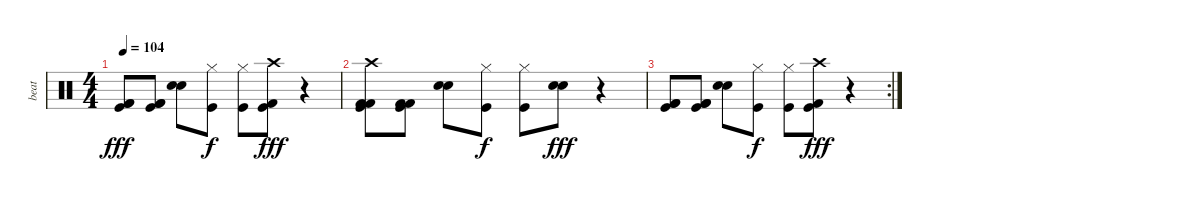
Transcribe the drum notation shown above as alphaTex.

\track ("beat" "beat") {instrument percussion}
\staff {score}
\articulation defaults
\ts (4 4)
\tempo 104
\clef neutral
\ks c
("Kick (hit)" "Kick (hit) 2" "Kick (hit) 2").8{dy fff} ("Kick (hit)" "Kick (hit) 2" "Kick (hit) 2").8 ("Snare (hit) 2" "Electric Snare (hit)").8 ("Kick (hit)" "Hi-Hat (closed)").8{dy f} ("Kick (hit)" "Hi-Hat (closed)").8 ("Kick (hit)" "Kick (hit) 2" "Crash high (hit)").8{dy fff} r.4 |
("Kick (hit)" "Kick (hit) 2" "Kick (hit) 2" "Crash high (hit)").8 ("Kick (hit)" "Kick (hit) 2" "Kick (hit) 2").8 ("Snare (hit) 2" "Electric Snare (hit)").8 ("Kick (hit)" "Hi-Hat (closed)").8{dy f} ("Kick (hit)" "Hi-Hat (closed)").8 ("Snare (hit) 2" "Electric Snare (hit)").8{dy fff} r.4 |
\rc 2
("Kick (hit)" "Kick (hit) 2" "Kick (hit) 2").8 ("Kick (hit)" "Kick (hit) 2" "Kick (hit) 2").8 ("Snare (hit) 2" "Electric Snare (hit)").8 ("Kick (hit)" "Hi-Hat (closed)").8{dy f} ("Kick (hit)" "Hi-Hat (closed)").8 ("Kick (hit)" "Kick (hit) 2" "Crash high (hit)").8{dy fff} r.4
